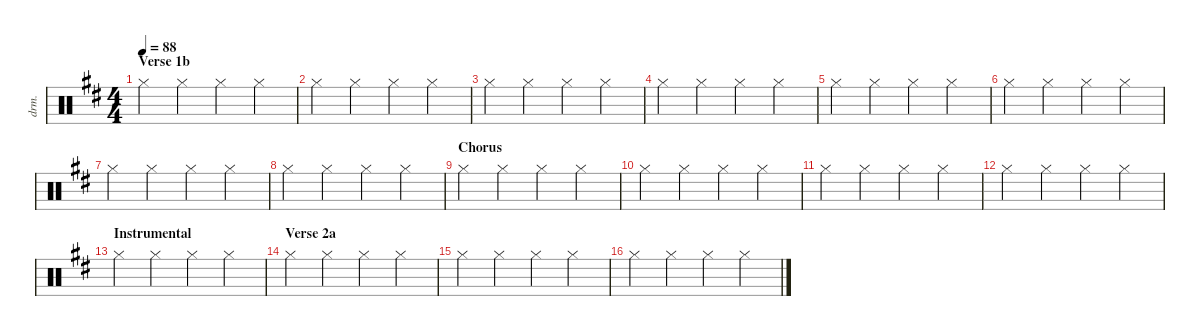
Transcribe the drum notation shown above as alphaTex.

\defaultSystemsLayout 4
\hideDynamics
\bracketExtendMode nobrackets
\otherSystemsTrackNameOrientation horizontal
\track ("Drumkit" "drm.") {instrument percussion}
\staff {score}
\articulation defaults
\ts (4 4)
\section ("" "Verse 1b")
\tempo 88
\clef neutral
\ks d "Hi-Hat (closed)"{acc forcenatural}.4{dy mf} "Hi-Hat (closed)"{acc forcenatural}.4 "Hi-Hat (closed)"{acc forcenatural}.4 "Hi-Hat (closed)"{acc forcenatural}.4
|
"Hi-Hat (closed)"{acc forcenatural}.4 "Hi-Hat (closed)"{acc forcenatural}.4 "Hi-Hat (closed)"{acc forcenatural}.4 "Hi-Hat (closed)"{acc forcenatural}.4 |
"Hi-Hat (closed)"{acc forcenatural}.4 "Hi-Hat (closed)"{acc forcenatural}.4 "Hi-Hat (closed)"{acc forcenatural}.4 "Hi-Hat (closed)"{acc forcenatural}.4 |
"Hi-Hat (closed)"{acc forcenatural}.4 "Hi-Hat (closed)"{acc forcenatural}.4 "Hi-Hat (closed)"{acc forcenatural}.4 "Hi-Hat (closed)"{acc forcenatural}.4 |
"Hi-Hat (closed)"{acc forcenatural}.4 "Hi-Hat (closed)"{acc forcenatural}.4 "Hi-Hat (closed)"{acc forcenatural}.4 "Hi-Hat (closed)"{acc forcenatural}.4 |
"Hi-Hat (closed)"{acc forcenatural}.4 "Hi-Hat (closed)"{acc forcenatural}.4 "Hi-Hat (closed)"{acc forcenatural}.4 "Hi-Hat (closed)"{acc forcenatural}.4 |
"Hi-Hat (closed)"{acc forcenatural}.4 "Hi-Hat (closed)"{acc forcenatural}.4 "Hi-Hat (closed)"{acc forcenatural}.4 "Hi-Hat (closed)"{acc forcenatural}.4 |
"Hi-Hat (closed)"{acc forcenatural}.4 "Hi-Hat (closed)"{acc forcenatural}.4 "Hi-Hat (closed)"{acc forcenatural}.4 "Hi-Hat (closed)"{acc forcenatural}.4 |
\section ("" "Chorus")
"Hi-Hat (closed)"{acc forcenatural}.4 "Hi-Hat (closed)"{acc forcenatural}.4 "Hi-Hat (closed)"{acc forcenatural}.4 "Hi-Hat (closed)"{acc forcenatural}.4 |
"Hi-Hat (closed)"{acc forcenatural}.4 "Hi-Hat (closed)"{acc forcenatural}.4 "Hi-Hat (closed)"{acc forcenatural}.4 "Hi-Hat (closed)"{acc forcenatural}.4 |
"Hi-Hat (closed)"{acc forcenatural}.4 "Hi-Hat (closed)"{acc forcenatural}.4 "Hi-Hat (closed)"{acc forcenatural}.4 "Hi-Hat (closed)"{acc forcenatural}.4 |
"Hi-Hat (closed)"{acc forcenatural}.4 "Hi-Hat (closed)"{acc forcenatural}.4 "Hi-Hat (closed)"{acc forcenatural}.4 "Hi-Hat (closed)"{acc forcenatural}.4 |
\section ("" "Instrumental")
"Hi-Hat (closed)"{acc forcenatural}.4 "Hi-Hat (closed)"{acc forcenatural}.4 "Hi-Hat (closed)"{acc forcenatural}.4 "Hi-Hat (closed)"{acc forcenatural}.4 |
\section ("" "Verse 2a")
"Hi-Hat (closed)"{acc forcenatural}.4 "Hi-Hat (closed)"{acc forcenatural}.4 "Hi-Hat (closed)"{acc forcenatural}.4 "Hi-Hat (closed)"{acc forcenatural}.4 |
"Hi-Hat (closed)"{acc forcenatural}.4 "Hi-Hat (closed)"{acc forcenatural}.4 "Hi-Hat (closed)"{acc forcenatural}.4 "Hi-Hat (closed)"{acc forcenatural}.4 |
"Hi-Hat (closed)"{acc forcenatural}.4 "Hi-Hat (closed)"{acc forcenatural}.4 "Hi-Hat (closed)"{acc forcenatural}.4 "Hi-Hat (closed)"{acc forcenatural}.4
